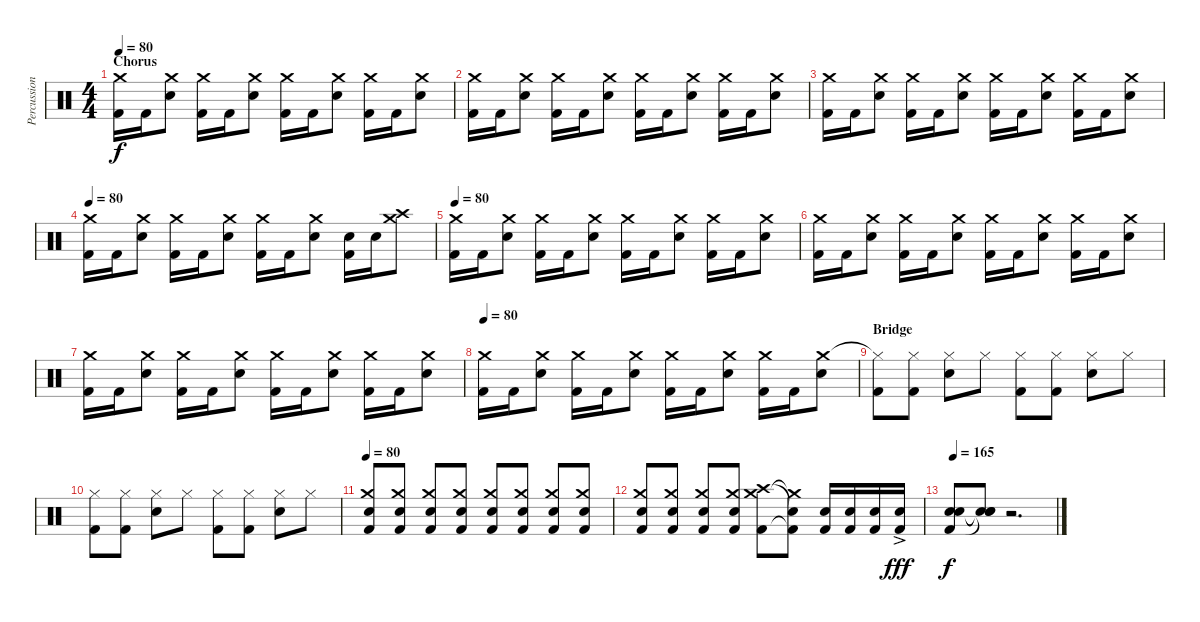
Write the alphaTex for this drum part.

\track ("Percussion" "Percussion") {instrument percussion}
\staff {score}
\articulation defaults
\ts (4 4)
\section ("" "Chorus")
\tempo 80
\clef neutral
\ks c
("Kick (hit) 2" "Crash medium (hit)").16{dy f} "Kick (hit) 2".16 ("Electric Snare (hit)" "Crash medium (hit)").8 ("Kick (hit) 2" "Crash medium (hit)").16 "Kick (hit) 2".16 ("Electric Snare (hit)" "Crash medium (hit)").8 ("Kick (hit) 2" "Crash medium (hit)").16 "Kick (hit) 2".16 ("Electric Snare (hit)" "Crash medium (hit)").8 ("Kick (hit) 2" "Crash medium (hit)").16 "Kick (hit) 2".16 ("Electric Snare (hit)" "Crash medium (hit)").8 |
("Kick (hit) 2" "Crash medium (hit)").16 "Kick (hit) 2".16 ("Electric Snare (hit)" "Crash medium (hit)").8 ("Kick (hit) 2" "Crash medium (hit)").16 "Kick (hit) 2".16 ("Electric Snare (hit)" "Crash medium (hit)").8 ("Kick (hit) 2" "Crash medium (hit)").16 "Kick (hit) 2".16 ("Electric Snare (hit)" "Crash medium (hit)").8 ("Kick (hit) 2" "Crash medium (hit)").16 "Kick (hit) 2".16 ("Electric Snare (hit)" "Crash medium (hit)").8 |
("Kick (hit) 2" "Crash medium (hit)").16 "Kick (hit) 2".16 ("Electric Snare (hit)" "Crash medium (hit)").8 ("Kick (hit) 2" "Crash medium (hit)").16 "Kick (hit) 2".16 ("Electric Snare (hit)" "Crash medium (hit)").8 ("Kick (hit) 2" "Crash medium (hit)").16 "Kick (hit) 2".16 ("Electric Snare (hit)" "Crash medium (hit)").8 ("Kick (hit) 2" "Crash medium (hit)").16 "Kick (hit) 2".16 ("Electric Snare (hit)" "Crash medium (hit)").8 |
\tempo 80
("Kick (hit) 2" "Crash medium (hit)").16 "Kick (hit) 2".16 ("Electric Snare (hit)" "Crash medium (hit)").8 ("Kick (hit) 2" "Crash medium (hit)").16 "Kick (hit) 2".16 ("Electric Snare (hit)" "Crash medium (hit)").8 ("Kick (hit) 2" "Crash medium (hit)").16 "Kick (hit) 2".16 ("Electric Snare (hit)" "Crash medium (hit)").8 ("Electric Snare (hit)" "Kick (hit) 2").16 "Electric Snare (hit)".16 ("Crash high (hit)" "Crash medium (hit)").8 |
\tempo 80
("Kick (hit) 2" "Crash medium (hit)").16 "Kick (hit) 2".16 ("Electric Snare (hit)" "Crash medium (hit)").8 ("Kick (hit) 2" "Crash medium (hit)").16 "Kick (hit) 2".16 ("Electric Snare (hit)" "Crash medium (hit)").8 ("Kick (hit) 2" "Crash medium (hit)").16 "Kick (hit) 2".16 ("Electric Snare (hit)" "Crash medium (hit)").8 ("Kick (hit) 2" "Crash medium (hit)").16 "Kick (hit) 2".16 ("Electric Snare (hit)" "Crash medium (hit)").8 |
("Kick (hit) 2" "Crash medium (hit)").16 "Kick (hit) 2".16 ("Electric Snare (hit)" "Crash medium (hit)").8 ("Kick (hit) 2" "Crash medium (hit)").16 "Kick (hit) 2".16 ("Electric Snare (hit)" "Crash medium (hit)").8 ("Kick (hit) 2" "Crash medium (hit)").16 "Kick (hit) 2".16 ("Electric Snare (hit)" "Crash medium (hit)").8 ("Kick (hit) 2" "Crash medium (hit)").16 "Kick (hit) 2".16 ("Electric Snare (hit)" "Crash medium (hit)").8 |
("Kick (hit) 2" "Crash medium (hit)").16 "Kick (hit) 2".16 ("Electric Snare (hit)" "Crash medium (hit)").8 ("Kick (hit) 2" "Crash medium (hit)").16 "Kick (hit) 2".16 ("Electric Snare (hit)" "Crash medium (hit)").8 ("Kick (hit) 2" "Crash medium (hit)").16 "Kick (hit) 2".16 ("Electric Snare (hit)" "Crash medium (hit)").8 ("Kick (hit) 2" "Crash medium (hit)").16 "Kick (hit) 2".16 ("Electric Snare (hit)" "Crash medium (hit)").8 |
\tempo 80
("Kick (hit) 2" "Crash medium (hit)").16 "Kick (hit) 2".16 ("Electric Snare (hit)" "Crash medium (hit)").8 ("Kick (hit) 2" "Crash medium (hit)").16 "Kick (hit) 2".16 ("Electric Snare (hit)" "Crash medium (hit)").8 ("Kick (hit) 2" "Crash medium (hit)").16 "Kick (hit) 2".16 ("Electric Snare (hit)" "Crash medium (hit)").8 ("Kick (hit) 2" "Crash medium (hit)").16 "Kick (hit) 2".16 ("Electric Snare (hit)" "Crash medium (hit)").8 |
\section ("" "Bridge")
("Kick (hit) 2" "Hi-Hat (closed)"{t}).8 ("Kick (hit) 2" "Hi-Hat (closed)").8 ("Electric Snare (hit)" "Hi-Hat (closed)").8 "Hi-Hat (closed)".8 ("Kick (hit) 2" "Hi-Hat (closed)").8 ("Kick (hit) 2" "Hi-Hat (closed)").8 ("Electric Snare (hit)" "Hi-Hat (closed)").8 "Hi-Hat (closed)".8 |
("Kick (hit) 2" "Hi-Hat (closed)").8 ("Kick (hit) 2" "Hi-Hat (closed)").8 ("Electric Snare (hit)" "Hi-Hat (closed)").8 "Hi-Hat (closed)".8 ("Kick (hit) 2" "Hi-Hat (closed)").8 ("Kick (hit) 2" "Hi-Hat (closed)").8 ("Electric Snare (hit)" "Hi-Hat (closed)").8 "Hi-Hat (closed)".8 |
\tempo 80
("Kick (hit) 2" "Electric Snare (hit)" "Crash medium (hit)").8 ("Kick (hit) 2" "Electric Snare (hit)" "Crash medium (hit)").8 ("Kick (hit) 2" "Electric Snare (hit)" "Crash medium (hit)").8 ("Kick (hit) 2" "Electric Snare (hit)" "Crash medium (hit)").8 ("Kick (hit) 2" "Electric Snare (hit)" "Crash medium (hit)").8 ("Kick (hit) 2" "Electric Snare (hit)" "Crash medium (hit)").8 ("Kick (hit) 2" "Electric Snare (hit)" "Crash medium (hit)").8 ("Kick (hit) 2" "Electric Snare (hit)" "Crash medium (hit)").8 |
("Kick (hit) 2" "Electric Snare (hit)" "Crash medium (hit)").8 ("Kick (hit) 2" "Electric Snare (hit)" "Crash medium (hit)").8 ("Kick (hit) 2" "Electric Snare (hit)" "Crash medium (hit)").8 ("Kick (hit) 2" "Electric Snare (hit)" "Crash medium (hit)").8 ("Kick (hit) 2" "Crash high (hit)" "Crash medium (hit)").8 ("Kick (hit) 2"{t} "Electric Snare (hit)"{t} "Crash medium (hit)"{t}).8 ("Kick (hit) 2" "Electric Snare (hit)").16 ("Kick (hit) 2" "Electric Snare (hit)").16 ("Kick (hit) 2" "Electric Snare (hit)").16 ("Kick (hit) 2"{ac} "Electric Snare (hit)").16{dy fff} |
\tempo 165
("Kick (hit) 2" "Electric Snare (hit)" "Electric Snare (hit)").8{dy f} ("Snare (hit)"{t} "Snare (hit)"{t} "Snare (hit)"{t}).8 r.2{d}
